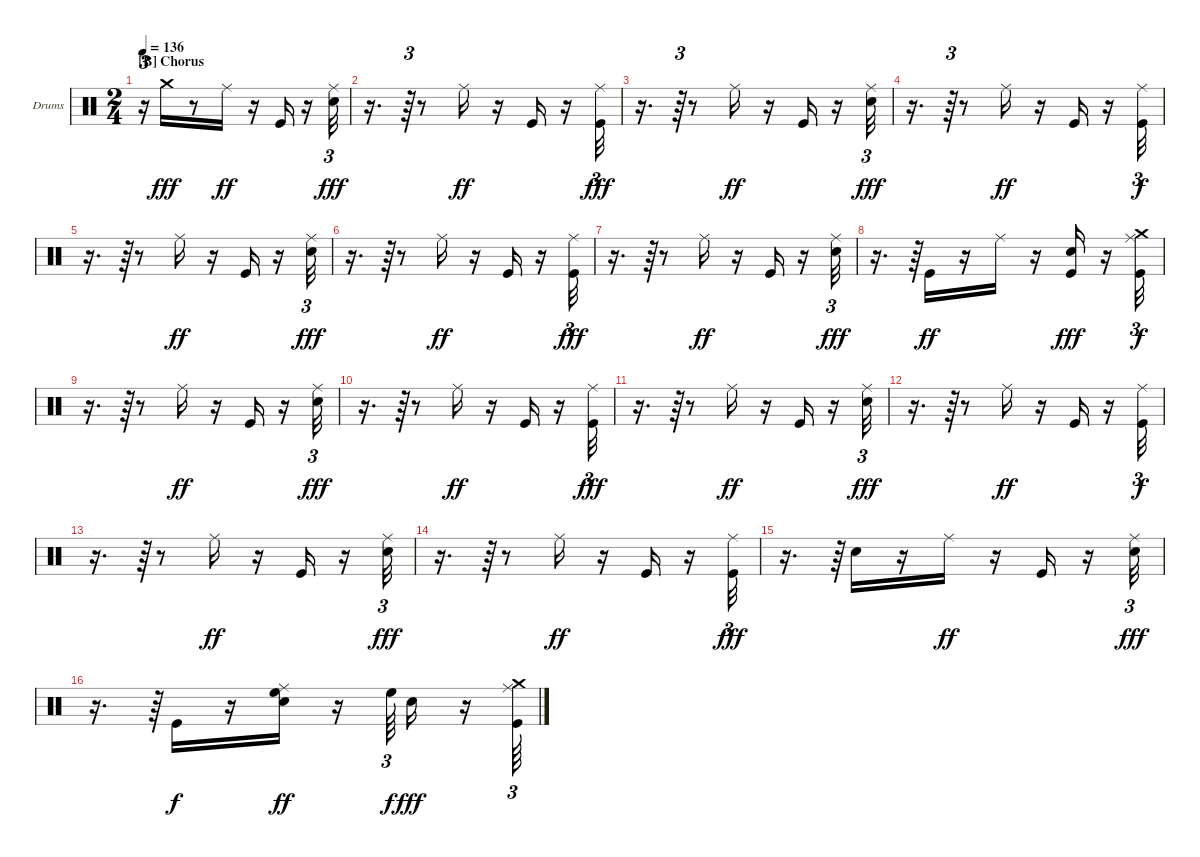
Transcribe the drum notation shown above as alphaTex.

\bracketExtendMode groupsimilarinstruments
\firstSystemTrackNameOrientation horizontal
\otherSystemsTrackNameOrientation horizontal
\track ("Drumkit" "Drums") {solo instrument percussion}
\staff {score}
\articulation defaults
\ts (2 4)
\section ("B" "Chorus")
\tempo 136
\clef neutral
\ks c
r.16{tu (3 2) dy f} "Crash medium (hit)".16{dy fff} r.8 "Ride (middle)".16{dy ff} r.16 "Kick (hit)".16 r.16 ("Ride (middle)" "Snare (hit) 2").32{tu (3 2) dy fff} |
r.16{d} r.64{tu (3 2)} r.8 "Ride (middle)".16{dy ff} r.16 "Kick (hit)".16 r.16 ("Ride (middle)" "Kick (hit)").32{tu (3 2) dy fff} |
r.16{d} r.64{tu (3 2)} r.8 "Ride (middle)".16{dy ff} r.16 "Kick (hit)".16 r.16 ("Ride (middle)" "Snare (hit) 2").32{tu (3 2) dy fff} |
r.16{d} r.64{tu (3 2)} r.8 "Ride (middle)".16{dy ff} r.16 "Kick (hit)".16 r.16 ("Ride (middle)" "Kick (hit)").32{tu (3 2) dy f} |
r.16{d} r.64{tu (3 2)} r.8 "Ride (middle)".16{dy ff} r.16 "Kick (hit)".16 r.16 ("Ride (middle)" "Snare (hit) 2").32{tu (3 2) dy fff} |
r.16{d} r.64{tu (3 2)} r.8 "Ride (middle)".16{dy ff} r.16 "Kick (hit)".16 r.16 ("Ride (middle)" "Kick (hit)").32{tu (3 2) dy fff} |
r.16{d} r.64{tu (3 2)} r.8 "Ride (middle)".16{dy ff} r.16 "Kick (hit)".16 r.16 ("Ride (middle)" "Snare (hit) 2").32{tu (3 2) dy fff} |
r.16{d} r.64{tu (3 2)} "Kick (hit)".16{dy ff} r.16 "Ride (middle)".16 r.16 ("Kick (hit)" "Snare (hit) 2").16{dy fff} r.16 ("Ride (middle)" "Kick (hit)" "Crash medium (hit)").32{tu (3 2) dy f} |
r.16{d} r.64{tu (3 2)} r.8 "Ride (middle)".16{dy ff} r.16 "Kick (hit)".16 r.16 ("Ride (middle)" "Snare (hit) 2").32{tu (3 2) dy fff} |
r.16{d} r.64{tu (3 2)} r.8 "Ride (middle)".16{dy ff} r.16 "Kick (hit)".16 r.16 ("Ride (middle)" "Kick (hit)").32{tu (3 2) dy fff} |
r.16{d} r.64{tu (3 2)} r.8 "Ride (middle)".16{dy ff} r.16 "Kick (hit)".16 r.16 ("Ride (middle)" "Snare (hit) 2").32{tu (3 2) dy fff} |
r.16{d} r.64{tu (3 2)} r.8 "Ride (middle)".16{dy ff} r.16 "Kick (hit)".16 r.16 ("Ride (middle)" "Kick (hit)").32{tu (3 2) dy f} |
r.16{d} r.64{tu (3 2)} r.8 "Ride (middle)".16{dy ff} r.16 "Kick (hit)".16 r.16 ("Ride (middle)" "Snare (hit) 2").32{tu (3 2) dy fff} |
r.16{d} r.64{tu (3 2)} r.8 "Ride (middle)".16{dy ff} r.16 "Kick (hit)".16 r.16 ("Ride (middle)" "Kick (hit)").32{tu (3 2) dy fff} |
r.16{d} r.64{tu (3 2)} "Snare (hit) 2".16 r.16 "Ride (middle)".16{dy ff} r.16 "Kick (hit)".16 r.16 ("Ride (middle)" "Snare (hit) 2").32{tu (3 2) dy fff} |
r.16{d} r.64{tu (3 2)} "Kick (hit)".16{dy f} r.16 ("Ride (middle)" "Snare (hit) 2" "High Floor Tom (hit)").16{dy ff} r.16 "High Floor Tom (hit)".64{tu (3 2) dy f} "Snare (hit) 2".16{dy fff} r.16 ("Crash medium (hit)" "Ride (middle)" "Kick (hit)").64{tu (3 2)}
